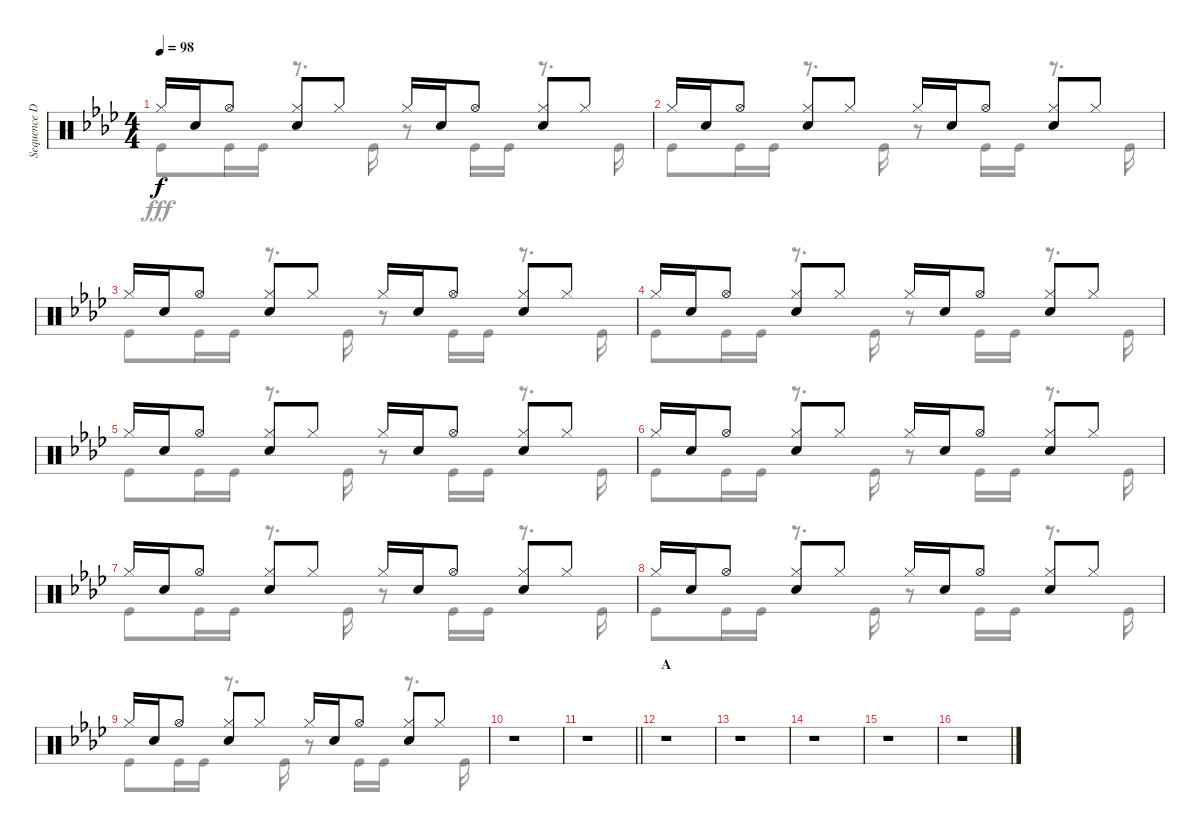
\track ("Sequence Drums II" "Sequence D") {instrument percussion}
\staff {score}
\articulation defaults
\voice
\ts (4 4)
\tempo 98
\clef neutral
\ks ab "Hi-Hat (closed)".16{dy f} "Snare (hit) 2".16 "Hi-Hat (open)".8
("Hi-Hat (closed)" "Snare (hit) 2").8 "Hi-Hat (closed)".8 "Hi-Hat (closed)".16 "Snare (hit) 2".16 "Hi-Hat (open)".8 ("Hi-Hat (closed)" "Snare (hit) 2").8 "Hi-Hat (closed)".8 |
"Hi-Hat (closed)".16 "Snare (hit) 2".16 "Hi-Hat (open)".8 ("Hi-Hat (closed)" "Snare (hit) 2").8 "Hi-Hat (closed)".8 "Hi-Hat (closed)".16 "Snare (hit) 2".16 "Hi-Hat (open)".8 ("Hi-Hat (closed)" "Snare (hit) 2").8 "Hi-Hat (closed)".8 |
"Hi-Hat (closed)".16 "Snare (hit) 2".16 "Hi-Hat (open)".8 ("Hi-Hat (closed)" "Snare (hit) 2").8 "Hi-Hat (closed)".8 "Hi-Hat (closed)".16 "Snare (hit) 2".16 "Hi-Hat (open)".8 ("Hi-Hat (closed)" "Snare (hit) 2").8 "Hi-Hat (closed)".8 |
"Hi-Hat (closed)".16 "Snare (hit) 2".16 "Hi-Hat (open)".8 ("Hi-Hat (closed)" "Snare (hit) 2").8 "Hi-Hat (closed)".8 "Hi-Hat (closed)".16 "Snare (hit) 2".16 "Hi-Hat (open)".8 ("Hi-Hat (closed)" "Snare (hit) 2").8 "Hi-Hat (closed)".8 |
"Hi-Hat (closed)".16 "Snare (hit) 2".16 "Hi-Hat (open)".8 ("Hi-Hat (closed)" "Snare (hit) 2").8 "Hi-Hat (closed)".8 "Hi-Hat (closed)".16 "Snare (hit) 2".16 "Hi-Hat (open)".8 ("Hi-Hat (closed)" "Snare (hit) 2").8 "Hi-Hat (closed)".8 |
"Hi-Hat (closed)".16 "Snare (hit) 2".16 "Hi-Hat (open)".8 ("Hi-Hat (closed)" "Snare (hit) 2").8 "Hi-Hat (closed)".8 "Hi-Hat (closed)".16 "Snare (hit) 2".16 "Hi-Hat (open)".8 ("Hi-Hat (closed)" "Snare (hit) 2").8 "Hi-Hat (closed)".8 |
"Hi-Hat (closed)".16 "Snare (hit) 2".16 "Hi-Hat (open)".8 ("Hi-Hat (closed)" "Snare (hit) 2").8 "Hi-Hat (closed)".8 "Hi-Hat (closed)".16 "Snare (hit) 2".16 "Hi-Hat (open)".8 ("Hi-Hat (closed)" "Snare (hit) 2").8 "Hi-Hat (closed)".8 |
"Hi-Hat (closed)".16 "Snare (hit) 2".16 "Hi-Hat (open)".8 ("Hi-Hat (closed)" "Snare (hit) 2").8 "Hi-Hat (closed)".8 "Hi-Hat (closed)".16 "Snare (hit) 2".16 "Hi-Hat (open)".8 ("Hi-Hat (closed)" "Snare (hit) 2").8 "Hi-Hat (closed)".8 |
"Hi-Hat (closed)".16 "Snare (hit) 2".16 "Hi-Hat (open)".8 ("Hi-Hat (closed)" "Snare (hit) 2").8 "Hi-Hat (closed)".8 "Hi-Hat (closed)".16 "Snare (hit) 2".16 "Hi-Hat (open)".8 ("Hi-Hat (closed)" "Snare (hit) 2").8 "Hi-Hat (closed)".8 |
r.1 |
\barLineRight lightlight
r.1 |
\section ("" "A")
r.1 |
r.1 |
r.1 |
r.1 |
r.1
\voice
\clef neutral
\ottava regular
\simile none
\ks ab "Kick (hit)".8{dy fff} "Kick (hit)".16 "Kick (hit)".16
r.8{d} "Kick (hit)".16 r.8 "Kick (hit)".16 "Kick (hit)".16 r.8{d} "Kick (hit)".16 |
"Kick (hit)".8 "Kick (hit)".16 "Kick (hit)".16 r.8{d} "Kick (hit)".16 r.8 "Kick (hit)".16 "Kick (hit)".16 r.8{d} "Kick (hit)".16 |
"Kick (hit)".8 "Kick (hit)".16 "Kick (hit)".16 r.8{d} "Kick (hit)".16 r.8 "Kick (hit)".16 "Kick (hit)".16 r.8{d} "Kick (hit)".16 |
"Kick (hit)".8 "Kick (hit)".16 "Kick (hit)".16 r.8{d} "Kick (hit)".16 r.8 "Kick (hit)".16 "Kick (hit)".16 r.8{d} "Kick (hit)".16 |
"Kick (hit)".8 "Kick (hit)".16 "Kick (hit)".16 r.8{d} "Kick (hit)".16 r.8 "Kick (hit)".16 "Kick (hit)".16 r.8{d} "Kick (hit)".16 |
"Kick (hit)".8 "Kick (hit)".16 "Kick (hit)".16 r.8{d} "Kick (hit)".16 r.8 "Kick (hit)".16 "Kick (hit)".16 r.8{d} "Kick (hit)".16 |
"Kick (hit)".8 "Kick (hit)".16 "Kick (hit)".16 r.8{d} "Kick (hit)".16 r.8 "Kick (hit)".16 "Kick (hit)".16 r.8{d} "Kick (hit)".16 |
"Kick (hit)".8 "Kick (hit)".16 "Kick (hit)".16 r.8{d} "Kick (hit)".16 r.8 "Kick (hit)".16 "Kick (hit)".16 r.8{d} "Kick (hit)".16 |
"Kick (hit)".8 "Kick (hit)".16 "Kick (hit)".16 r.8{d} "Kick (hit)".16 r.8 "Kick (hit)".16 "Kick (hit)".16 r.8{d} "Kick (hit)".16 |
r.1 |
\barLineRight lightlight
r.1 |
r.1 |
r.1 |
r.1 |
r.1 |
r.1
